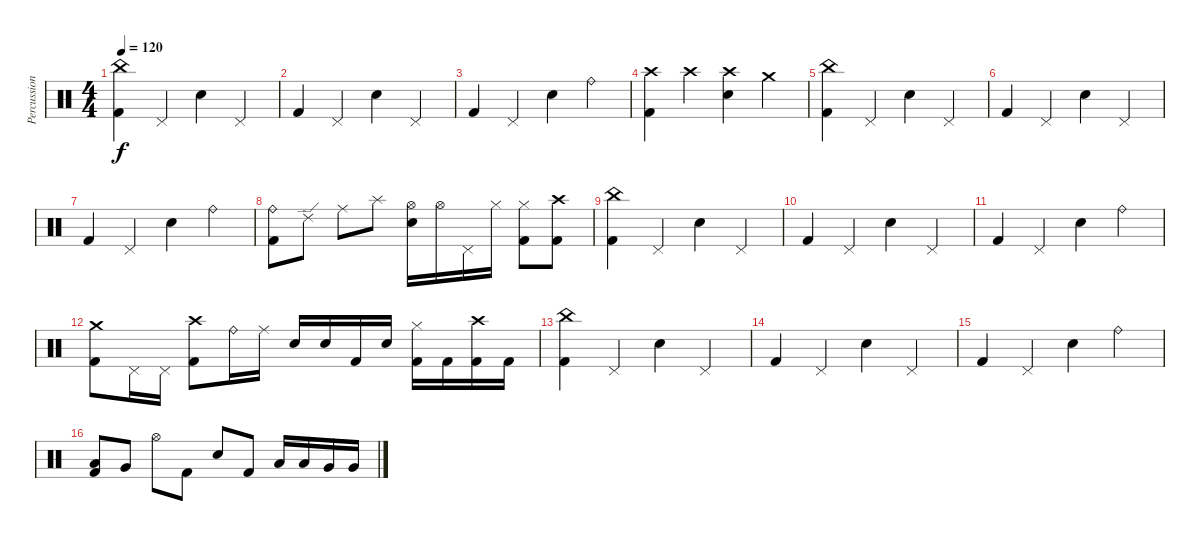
\track ("Percussion" "Percussion") {instrument percussion}
\staff {score}
\articulation defaults
\ts (4 4)
\tempo 120
\clef neutral
\ks c
("China (hit)" "Kick (hit) 2").4{dy f} "Pedal Hi-Hat (hit)".4 "Electric Snare (hit)".4 "Pedal Hi-Hat (hit)".4 |
"Kick (hit) 2".4 "Pedal Hi-Hat (hit)".4 "Electric Snare (hit)".4 "Pedal Hi-Hat (hit)".4 |
"Kick (hit) 2".4 "Pedal Hi-Hat (hit)".4 "Electric Snare (hit)".4 "Ride (bell)".4 |
("Crash high (hit)" "Kick (hit) 2").4 "Crash high (hit)".4 ("Crash high (hit)" "Electric Snare (hit)").4 "Crash medium (hit)".4 |
("China (hit)" "Kick (hit) 2").4 "Pedal Hi-Hat (hit)".4 "Electric Snare (hit)".4 "Pedal Hi-Hat (hit)".4 |
"Kick (hit) 2".4 "Pedal Hi-Hat (hit)".4 "Electric Snare (hit)".4 "Pedal Hi-Hat (hit)".4 |
"Kick (hit) 2".4 "Pedal Hi-Hat (hit)".4 "Electric Snare (hit)".4 "Ride (bell)".4 |
("Ride (bell)" "Kick (hit) 2").8 "Ride (edge) 2".8 "Ride (middle)".8 "Splash (hit)".8 ("Hi-Hat (open)" "Electric Snare (hit)").16 "Hi-Hat (open)".16 "Pedal Hi-Hat (hit)".16 "Hi-Hat (closed)".16 ("Hi-Hat (closed)" "Kick (hit) 2").8 ("Crash high (hit)" "Kick (hit) 2").8 |
("China (hit)" "Kick (hit) 2").4 "Pedal Hi-Hat (hit)".4 "Electric Snare (hit)".4 "Pedal Hi-Hat (hit)".4 |
"Kick (hit) 2".4 "Pedal Hi-Hat (hit)".4 "Electric Snare (hit)".4 "Pedal Hi-Hat (hit)".4 |
"Kick (hit) 2".4 "Pedal Hi-Hat (hit)".4 "Electric Snare (hit)".4 "Ride (bell)".4 |
("Crash medium (hit)" "Kick (hit) 2").8 "Pedal Hi-Hat (hit)".16 "Pedal Hi-Hat (hit)".16 ("Crash high (hit)" "Kick (hit) 2").8 "Ride (bell)".16 "Ride (middle)".16 "Electric Snare (hit)".16 "Electric Snare (hit)".16 "Kick (hit) 2".16 "Electric Snare (hit)".16 ("Hi-Hat (closed)" "Kick (hit) 2").16 "Kick (hit) 2".16 ("Crash high (hit)" "Kick (hit) 2").16 "Kick (hit) 2".16 |
("China (hit)" "Kick (hit) 2").4 "Pedal Hi-Hat (hit)".4 "Electric Snare (hit)".4 "Pedal Hi-Hat (hit)".4 |
"Kick (hit) 2".4 "Pedal Hi-Hat (hit)".4 "Electric Snare (hit)".4 "Pedal Hi-Hat (hit)".4 |
"Kick (hit) 2".4 "Pedal Hi-Hat (hit)".4 "Electric Snare (hit)".4 "Ride (bell)".4 |
("Low Tom (hit)" "Kick (hit) 2").8 "Very Low Tom (hit)".8 "Hi-Hat (open)".8 "Kick (hit) 2".8 "Electric Snare (hit)".8 "Kick (hit) 2".8 "Low Tom (hit)".16 "Low Tom (hit)".16 "Very Low Tom (hit)".16 "Very Low Tom (hit)".16
